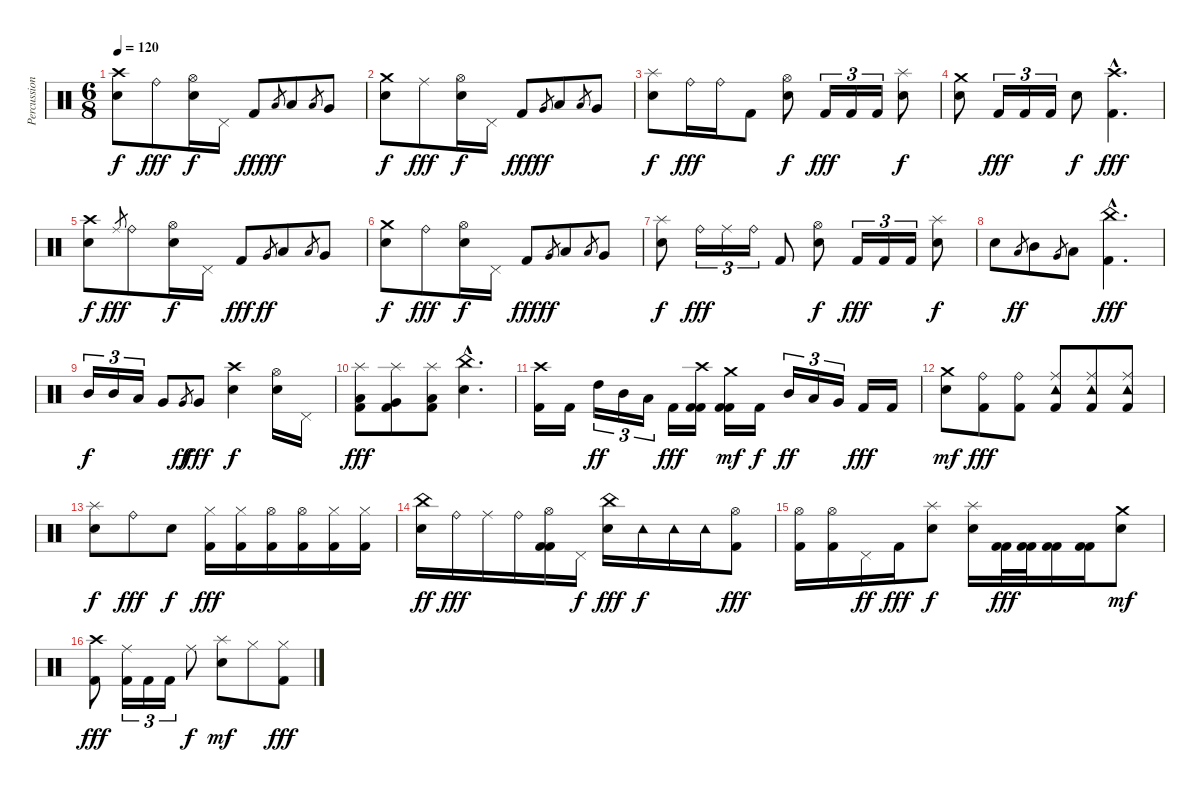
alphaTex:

\track ("Percussion" "Percussion") {instrument percussion}
\staff {score}
\articulation defaults
\ts (6 8)
\tempo 120
\clef neutral
\ks c
("Crash high (hit)" "Electric Snare (hit)").8{dy f} "Ride (bell)".8{dy fff} ("Hi-Hat (open)" "Electric Snare (hit)").16{dy f} "Pedal Hi-Hat (hit)".16 "Kick (hit) 2".8{dy fff} "Low Tom (hit)".8{gr dy ff} "Low Tom (hit)".8 "Low Tom (hit)".8{gr} "Very Low Tom (hit)".8 |
("Crash medium (hit)" "Electric Snare (hit)").8{dy f} "Ride (middle)".8{dy fff} ("Hi-Hat (open)" "Electric Snare (hit)").16{dy f} "Pedal Hi-Hat (hit)".16 "Kick (hit) 2".8{dy fff} "Very Low Tom (hit)".8{gr dy ff} "Low Tom (hit)".8 "Low Floor Tom (hit)".8{gr} "Very Low Tom (hit)".8 |
("Splash (hit)" "Electric Snare (hit)").8{dy f} "Ride (bell)".16{dy fff} "Ride (bell)".16 "Kick (hit) 2".8 ("Hi-Hat (open)" "Electric Snare (hit)").8{dy f} "Kick (hit) 2".16{tu (3 2) dy fff} "Kick (hit) 2".16{tu (3 2)} "Kick (hit) 2".16{tu (3 2)} ("Splash (hit)" "Electric Snare (hit)").8{dy f} |
("Crash medium (hit)" "Electric Snare (hit)").8 "Kick (hit) 2".16{tu (3 2) dy fff} "Kick (hit) 2".16{tu (3 2)} "Kick (hit) 2".16{tu (3 2)} "Electric Snare (hit)".8{dy f} ("Crash high (hit)"{hac} "Kick (hit) 2"{hac}).4{d dy fff} |
("Crash high (hit)" "Electric Snare (hit)").8{dy f} "Ride (middle)".8{gr dy fff} "Ride (bell)".8 ("Hi-Hat (open)" "Electric Snare (hit)").16{dy f} "Pedal Hi-Hat (hit)".16 "Kick (hit) 2".8{dy fff} "Very Low Tom (hit)".8{gr dy ff} "Low Tom (hit)".8 "Low Floor Tom (hit)".8{gr} "Very Low Tom (hit)".8 |
("Crash medium (hit)" "Electric Snare (hit)").8{dy f} "Ride (bell)".8{dy fff} ("Hi-Hat (open)" "Electric Snare (hit)").16{dy f} "Pedal Hi-Hat (hit)".16 "Kick (hit) 2".8{dy fff} "Very Low Tom (hit)".8{gr dy ff} "Low Tom (hit)".8 "Low Floor Tom (hit)".8{gr} "Very Low Tom (hit)".8 |
("Splash (hit)" "Electric Snare (hit)").8{dy f} "Ride (bell)".16{tu (3 2) dy fff} "Ride (middle)".16{tu (3 2)} "Ride (bell)".16{tu (3 2)} "Kick (hit) 2".8 ("Hi-Hat (open)" "Electric Snare (hit)").8{dy f} "Kick (hit) 2".16{tu (3 2) dy fff} "Kick (hit) 2".16{tu (3 2)} "Kick (hit) 2".16{tu (3 2)} ("Splash (hit)" "Electric Snare (hit)").8{dy f} |
"Electric Snare (hit)".8 "Low Tom (hit)".8{gr dy ff} "Mid Tom (hit)".8 "Very Low Tom (hit)".8{gr} "Low Tom (hit)".8 ("China (hit)"{hac} "Kick (hit) 2"{hac}).4{d dy fff} |
"Mid Tom (hit)".16{tu (3 2) dy f} "Mid Tom (hit)".16{tu (3 2)} "Low Tom (hit)".16{tu (3 2)} "Very Low Tom (hit)".8 "Very Low Tom (hit)".8{gr dy ff} "Very Low Tom (hit)".8{dy fff} ("Crash high (hit)" "Electric Snare (hit)").4{dy f} ("Hi-Hat (open)" "Electric Snare (hit)").16 "Pedal Hi-Hat (hit)".16 |
("Splash (hit)" "Low Tom (hit)" "Kick (hit) 2").8{dy fff} ("Splash (hit)" "Very Low Tom (hit)" "Kick (hit) 2").8 ("Splash (hit)" "Low Floor Tom (hit)" "Kick (hit) 2").8 ("China (hit)"{hac} "Electric Snare (hit)"{hac}).4{d} |
("Crash high (hit)" "Kick (hit) 2").16 "Kick (hit) 2".16 "High Tom (hit)".16{tu (3 2) dy ff} "Mid Tom (hit)".16{tu (3 2)} "Low Tom (hit)".16{tu (3 2)} "Kick (hit) 2".16{dy fff} ("Crash high (hit)" "Kick (hit) 2" "Kick (hit) 2").16 ("Crash medium (hit)" "Kick (hit) 2" "Kick (hit) 2").16{dy mf} "Kick (hit) 2".16{dy f} "Mid Tom (hit)".16{tu (3 2) dy ff} "Low Tom (hit)".16{tu (3 2)} "Very Low Tom (hit)".16{tu (3 2)} "Kick (hit) 2".16{dy fff} "Kick (hit) 2".16 |
("Crash medium (hit)" "Electric Snare (hit)").8{dy mf} ("Ride (bell)" "Kick (hit) 2").8{dy fff} ("Ride (bell)" "Kick (hit) 2").8 ("Ride (middle)" "Tambourine (hit)" "Kick (hit) 2").8 ("Ride (middle)" "Tambourine (hit)" "Kick (hit) 2").8 ("Ride (middle)" "Tambourine (hit)" "Kick (hit) 2").8 |
("Splash (hit)" "Electric Snare (hit)").8{dy f} "Ride (bell)".8{dy fff} "Electric Snare (hit)".8{dy f} ("Hi-Hat (closed)" "Kick (hit) 2").16{dy fff} ("Hi-Hat (closed)" "Kick (hit) 2").16 ("Hi-Hat (open)" "Kick (hit) 2").16 ("Hi-Hat (open)" "Kick (hit) 2").16 ("Hi-Hat (closed)" "Kick (hit) 2").16 ("Hi-Hat (closed)" "Kick (hit) 2").16 |
("China (hit)" "Electric Snare (hit)").16{dy ff} "Ride (bell)".16{dy fff} "Ride (middle)".16 "Ride (bell)".16 ("Hi-Hat (open)" "Kick (hit) 2" "Kick (hit) 2").16 "Pedal Hi-Hat (hit)".16{dy f} ("China (hit)" "Electric Snare (hit)").16{dy fff} "Tambourine (hit)".16{dy f} "Tambourine (hit)".16 "Tambourine (hit)".16 ("Hi-Hat (open)" "Kick (hit) 2").8{dy fff} |
("Hi-Hat (open)" "Kick (hit) 2").16 ("Hi-Hat (open)" "Kick (hit) 2").16 "Pedal Hi-Hat (hit)".16{dy ff} "Kick (hit) 2".16{dy fff} ("Splash (hit)" "Electric Snare (hit)").8{dy f} ("Splash (hit)" "Electric Snare (hit)").16 ("Kick (hit) 2" "Kick (hit) 2").32{dy fff} ("Kick (hit) 2" "Kick (hit) 2").32 ("Kick (hit) 2" "Kick (hit) 2").16 ("Kick (hit) 2" "Kick (hit) 2").16 ("Crash medium (hit)" "Electric Snare (hit)").8{dy mf} |
("Crash high (hit)" "Kick (hit) 2").8{dy fff} ("Ride (middle)" "Kick (hit) 2").16{tu (3 2)} "Kick (hit) 2".16{tu (3 2)} "Kick (hit) 2".16{tu (3 2)} "Ride (middle)".8{dy f} ("Splash (hit)" "Electric Snare (hit)").8{dy mf} "Hi-Hat (closed)".8 ("Hi-Hat (closed)" "Kick (hit) 2").8{dy fff}
